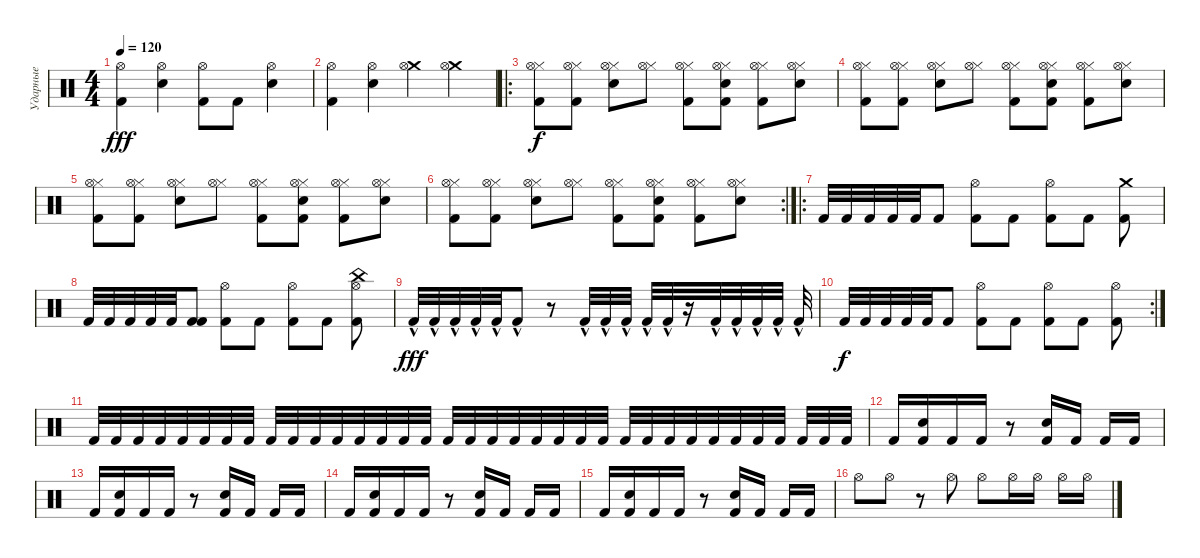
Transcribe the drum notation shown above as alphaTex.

\track ("Ударные" "Ударные") {instrument percussion}
\staff {score}
\articulation defaults
\ts (4 4)
\tempo 120
\clef neutral
\ks c
("Hi-Hat (open)" "Kick (hit) 2").4{dy fff} ("Hi-Hat (open)" "Snare (hit) 2").4 ("Hi-Hat (open)" "Kick (hit) 2").8 "Kick (hit) 2".8 ("Hi-Hat (open)" "Snare (hit) 2").4 |
("Hi-Hat (open)" "Kick (hit) 2").4 ("Hi-Hat (open)" "Snare (hit) 2").4 ("Crash medium (hit)" "Hi-Hat (open)").4 ("Crash medium (hit)" "Hi-Hat (open)").4 |
\ro
("Hi-Hat (closed)" "Kick (hit) 2" "Hi-Hat (open)").8{dy f} ("Hi-Hat (closed)" "Kick (hit) 2" "Hi-Hat (open)").8 ("Hi-Hat (closed)" "Snare (hit) 2" "Hi-Hat (open)").8 ("Hi-Hat (closed)" "Hi-Hat (open)").8 ("Hi-Hat (closed)" "Kick (hit) 2" "Hi-Hat (open)").8 ("Hi-Hat (closed)" "Kick (hit) 2" "Snare (hit) 2" "Hi-Hat (open)").8 ("Hi-Hat (closed)" "Hi-Hat (open)" "Kick (hit) 2").8 ("Hi-Hat (closed)" "Snare (hit) 2" "Hi-Hat (open)").8 |
("Hi-Hat (closed)" "Kick (hit) 2" "Hi-Hat (open)").8 ("Hi-Hat (closed)" "Kick (hit) 2" "Hi-Hat (open)").8 ("Hi-Hat (closed)" "Snare (hit) 2" "Hi-Hat (open)").8 ("Hi-Hat (closed)" "Hi-Hat (open)").8 ("Hi-Hat (closed)" "Kick (hit) 2" "Hi-Hat (open)").8 ("Hi-Hat (closed)" "Kick (hit) 2" "Snare (hit) 2" "Hi-Hat (open)").8 ("Hi-Hat (closed)" "Hi-Hat (open)" "Kick (hit) 2").8 ("Hi-Hat (closed)" "Snare (hit) 2" "Hi-Hat (open)").8 |
("Hi-Hat (closed)" "Kick (hit) 2" "Hi-Hat (open)").8 ("Hi-Hat (closed)" "Kick (hit) 2" "Hi-Hat (open)").8 ("Hi-Hat (closed)" "Snare (hit) 2" "Hi-Hat (open)").8 ("Hi-Hat (closed)" "Hi-Hat (open)").8 ("Hi-Hat (closed)" "Kick (hit) 2" "Hi-Hat (open)").8 ("Hi-Hat (closed)" "Kick (hit) 2" "Snare (hit) 2" "Hi-Hat (open)").8 ("Hi-Hat (closed)" "Hi-Hat (open)" "Kick (hit) 2").8 ("Hi-Hat (closed)" "Snare (hit) 2" "Hi-Hat (open)").8 |
\rc 2
("Hi-Hat (closed)" "Kick (hit) 2" "Hi-Hat (open)").8 ("Hi-Hat (closed)" "Kick (hit) 2" "Hi-Hat (open)").8 ("Hi-Hat (closed)" "Snare (hit) 2" "Hi-Hat (open)").8 ("Hi-Hat (closed)" "Hi-Hat (open)").8 ("Hi-Hat (closed)" "Kick (hit) 2" "Hi-Hat (open)").8 ("Hi-Hat (closed)" "Kick (hit) 2" "Snare (hit) 2" "Hi-Hat (open)").8 ("Hi-Hat (closed)" "Hi-Hat (open)" "Kick (hit) 2").8 ("Hi-Hat (closed)" "Snare (hit) 2" "Hi-Hat (open)").8 |
\ro "Kick (hit) 2".32 "Kick (hit) 2".32 "Kick (hit) 2".32 "Kick (hit) 2".32 "Kick (hit) 2".32 "Kick (hit) 2".8
("Kick (hit) 2" "Hi-Hat (open)").8 "Kick (hit) 2".8 ("Kick (hit) 2" "Hi-Hat (open)").8 "Kick (hit) 2".8 ("Kick (hit) 2" "Crash medium (hit)").8 |
"Kick (hit) 2".32 "Kick (hit) 2".32 "Kick (hit) 2".32 "Kick (hit) 2".32 "Kick (hit) 2".32 ("Kick (hit) 2" "Kick (hit) 2").8 ("Kick (hit) 2" "Hi-Hat (open)").8 "Kick (hit) 2".8 ("Kick (hit) 2" "Hi-Hat (open)").8 "Kick (hit) 2".8 ("Kick (hit) 2" "China (hit)" "Hi-Hat (open)").8 |
"Kick (hit) 2"{hac}.32{dy fff} "Kick (hit) 2"{hac}.32 "Kick (hit) 2"{hac}.32 "Kick (hit) 2"{hac}.32 "Kick (hit) 2"{hac}.32 "Kick (hit) 2"{hac}.8 r.8 "Kick (hit) 2"{hac}.32 "Kick (hit) 2"{hac}.32 "Kick (hit) 2"{hac}.32 "Kick (hit) 2"{hac}.32 "Kick (hit) 2"{hac}.32 r.16 "Kick (hit) 2"{hac}.32 "Kick (hit) 2"{hac}.32 "Kick (hit) 2"{hac}.32 "Kick (hit) 2"{hac}.32 "Kick (hit) 2"{hac}.32 |
\rc 2 "Kick (hit) 2".32{dy f} "Kick (hit) 2".32 "Kick (hit) 2".32 "Kick (hit) 2".32 "Kick (hit) 2".32 "Kick (hit) 2".8
("Kick (hit) 2" "Hi-Hat (open)").8 "Kick (hit) 2".8 ("Kick (hit) 2" "Hi-Hat (open)").8 "Kick (hit) 2".8 ("Kick (hit) 2" "Hi-Hat (open)").8 |
"Kick (hit) 2".32 "Kick (hit) 2".32 "Kick (hit) 2".32 "Kick (hit) 2".32 "Kick (hit) 2".32 "Kick (hit) 2".32 "Kick (hit) 2".32 "Kick (hit) 2".32 "Kick (hit) 2".32 "Kick (hit) 2".32 "Kick (hit) 2".32 "Kick (hit) 2".32 "Kick (hit) 2".32 "Kick (hit) 2".32 "Kick (hit) 2".32 "Kick (hit) 2".32 "Kick (hit) 2".32 "Kick (hit) 2".32 "Kick (hit) 2".32 "Kick (hit) 2".32 "Kick (hit) 2".32 "Kick (hit) 2".32 "Kick (hit) 2".32 "Kick (hit) 2".32 "Kick (hit) 2".32 "Kick (hit) 2".32 "Kick (hit) 2".32 "Kick (hit) 2".32 "Kick (hit) 2".32 "Kick (hit) 2".32 "Kick (hit) 2".32 "Kick (hit) 2".32 "Kick (hit) 2".32 "Kick (hit) 2".32 "Kick (hit) 2".32 |
"Kick (hit) 2".16 ("Kick (hit) 2" "Snare (hit) 2").16 "Kick (hit) 2".16 "Kick (hit) 2".16 r.8 ("Kick (hit) 2" "Snare (hit) 2").16 "Kick (hit) 2".16 "Kick (hit) 2".16 "Kick (hit) 2".16 |
"Kick (hit) 2".16 ("Kick (hit) 2" "Snare (hit) 2").16 "Kick (hit) 2".16 "Kick (hit) 2".16 r.8 ("Kick (hit) 2" "Snare (hit) 2").16 "Kick (hit) 2".16 "Kick (hit) 2".16 "Kick (hit) 2".16 |
"Kick (hit) 2".16 ("Kick (hit) 2" "Snare (hit) 2").16 "Kick (hit) 2".16 "Kick (hit) 2".16 r.8 ("Kick (hit) 2" "Snare (hit) 2").16 "Kick (hit) 2".16 "Kick (hit) 2".16 "Kick (hit) 2".16 |
"Kick (hit) 2".16 ("Kick (hit) 2" "Snare (hit) 2").16 "Kick (hit) 2".16 "Kick (hit) 2".16 r.8 ("Kick (hit) 2" "Snare (hit) 2").16 "Kick (hit) 2".16 "Kick (hit) 2".16 "Kick (hit) 2".16 |
"Hi-Hat (open)".8 "Hi-Hat (open)".8 r.8 "Hi-Hat (open)".8 "Hi-Hat (open)".8 "Hi-Hat (open)".16 "Hi-Hat (open)".16 "Hi-Hat (open)".16 "Hi-Hat (open)".16
